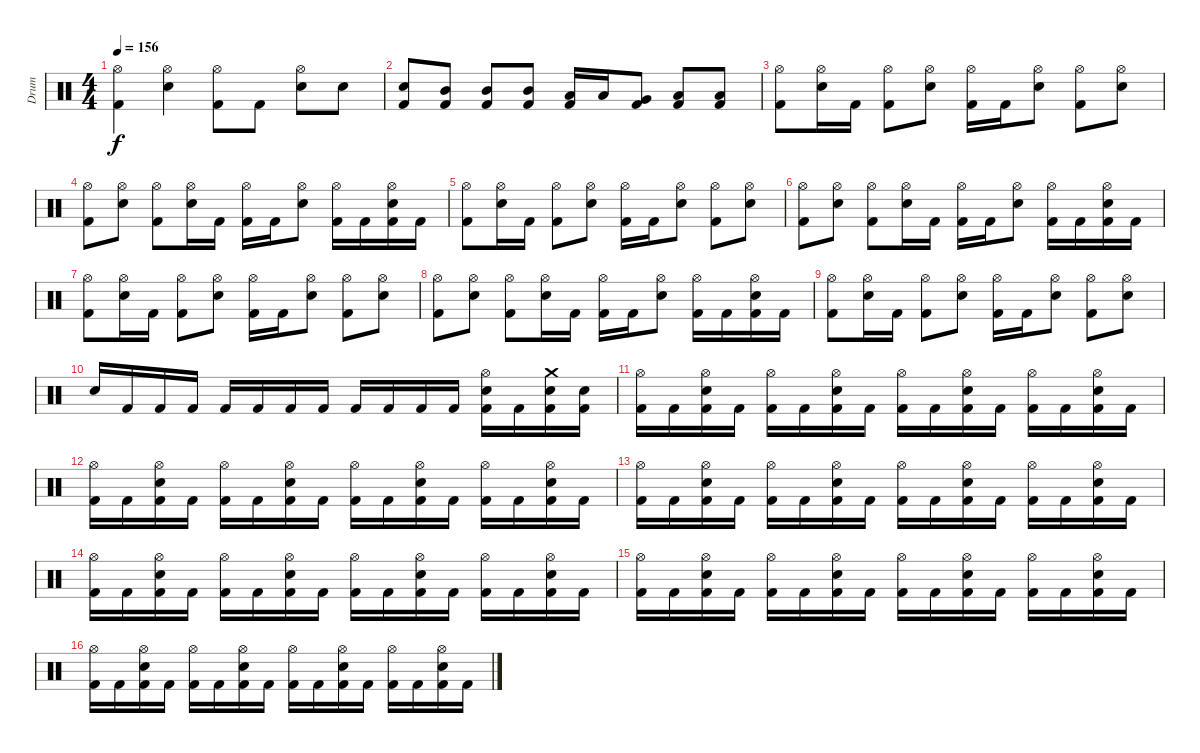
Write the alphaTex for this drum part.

\track (" Drum" " Drum") {instrument percussion}
\staff {score}
\articulation defaults
\ts (4 4)
\tempo 156
\clef neutral
\ks c
("Hi-Hat (open)" "Kick (hit) 2").4{dy f} ("Hi-Hat (open)" "Snare (hit) 2").4 ("Hi-Hat (open)" "Kick (hit) 2").8 "Kick (hit) 2".8 ("Snare (hit) 2" "Hi-Hat (open)").8 "Snare (hit) 2".8 |
("Kick (hit) 2" "Snare (hit) 2").8 ("Kick (hit) 2" "Mid Tom (hit)").8 ("Kick (hit) 2" "Mid Tom (hit)").8 ("Kick (hit) 2" "Mid Tom (hit)").8 ("Kick (hit) 2" "Low Tom (hit)").16 "Low Tom (hit)".16 ("Kick (hit) 2" "Very Low Tom (hit)").8 ("Kick (hit) 2" "Low Floor Tom (hit)").8 ("Kick (hit) 2" "Low Floor Tom (hit)").8 |
("Kick (hit) 2" "Hi-Hat (open)").8 ("Snare (hit) 2" "Hi-Hat (open)").16 "Kick (hit) 2".16 ("Kick (hit) 2" "Hi-Hat (open)").8 ("Snare (hit) 2" "Hi-Hat (open)").8 ("Kick (hit) 2" "Hi-Hat (open)").16 "Kick (hit) 2".16 ("Snare (hit) 2" "Hi-Hat (open)").8 ("Kick (hit) 2" "Hi-Hat (open)").8 ("Snare (hit) 2" "Hi-Hat (open)").8 |
("Kick (hit) 2" "Hi-Hat (open)").8 ("Snare (hit) 2" "Hi-Hat (open)").8 ("Kick (hit) 2" "Hi-Hat (open)").8 ("Snare (hit) 2" "Hi-Hat (open)").16 "Kick (hit) 2".16 ("Kick (hit) 2" "Hi-Hat (open)").16 "Kick (hit) 2".16 ("Snare (hit) 2" "Hi-Hat (open)").8 ("Kick (hit) 2" "Hi-Hat (open)").16 "Kick (hit) 2".16 ("Kick (hit) 2" "Snare (hit) 2" "Hi-Hat (open)").16 "Kick (hit) 2".16 |
("Kick (hit) 2" "Hi-Hat (open)").8 ("Snare (hit) 2" "Hi-Hat (open)").16 "Kick (hit) 2".16 ("Kick (hit) 2" "Hi-Hat (open)").8 ("Snare (hit) 2" "Hi-Hat (open)").8 ("Kick (hit) 2" "Hi-Hat (open)").16 "Kick (hit) 2".16 ("Snare (hit) 2" "Hi-Hat (open)").8 ("Kick (hit) 2" "Hi-Hat (open)").8 ("Snare (hit) 2" "Hi-Hat (open)").8 |
("Kick (hit) 2" "Hi-Hat (open)").8 ("Snare (hit) 2" "Hi-Hat (open)").8 ("Kick (hit) 2" "Hi-Hat (open)").8 ("Snare (hit) 2" "Hi-Hat (open)").16 "Kick (hit) 2".16 ("Kick (hit) 2" "Hi-Hat (open)").16 "Kick (hit) 2".16 ("Snare (hit) 2" "Hi-Hat (open)").8 ("Kick (hit) 2" "Hi-Hat (open)").16 "Kick (hit) 2".16 ("Kick (hit) 2" "Snare (hit) 2" "Hi-Hat (open)").16 "Kick (hit) 2".16 |
("Kick (hit) 2" "Hi-Hat (open)").8 ("Snare (hit) 2" "Hi-Hat (open)").16 "Kick (hit) 2".16 ("Kick (hit) 2" "Hi-Hat (open)").8 ("Snare (hit) 2" "Hi-Hat (open)").8 ("Kick (hit) 2" "Hi-Hat (open)").16 "Kick (hit) 2".16 ("Snare (hit) 2" "Hi-Hat (open)").8 ("Kick (hit) 2" "Hi-Hat (open)").8 ("Snare (hit) 2" "Hi-Hat (open)").8 |
("Kick (hit) 2" "Hi-Hat (open)").8 ("Snare (hit) 2" "Hi-Hat (open)").8 ("Kick (hit) 2" "Hi-Hat (open)").8 ("Snare (hit) 2" "Hi-Hat (open)").16 "Kick (hit) 2".16 ("Kick (hit) 2" "Hi-Hat (open)").16 "Kick (hit) 2".16 ("Snare (hit) 2" "Hi-Hat (open)").8 ("Kick (hit) 2" "Hi-Hat (open)").16 "Kick (hit) 2".16 ("Kick (hit) 2" "Snare (hit) 2" "Hi-Hat (open)").16 "Kick (hit) 2".16 |
("Kick (hit) 2" "Hi-Hat (open)").8 ("Snare (hit) 2" "Hi-Hat (open)").16 "Kick (hit) 2".16 ("Kick (hit) 2" "Hi-Hat (open)").8 ("Snare (hit) 2" "Hi-Hat (open)").8 ("Kick (hit) 2" "Hi-Hat (open)").16 "Kick (hit) 2".16 ("Snare (hit) 2" "Hi-Hat (open)").8 ("Kick (hit) 2" "Hi-Hat (open)").8 ("Snare (hit) 2" "Hi-Hat (open)").8 |
"Snare (hit) 2".16 "Kick (hit) 2".16 "Kick (hit) 2".16 "Kick (hit) 2".16 "Kick (hit) 2".16 "Kick (hit) 2".16 "Kick (hit) 2".16 "Kick (hit) 2".16 "Kick (hit) 2".16 "Kick (hit) 2".16 "Kick (hit) 2".16 "Kick (hit) 2".16 ("Hi-Hat (open)" "Electric Snare (hit)" "Kick (hit) 2").16 "Kick (hit) 2".16 ("Crash medium (hit)" "Electric Snare (hit)" "Kick (hit) 2").16 ("Electric Snare (hit)" "Kick (hit) 2").16 |
("Hi-Hat (open)" "Kick (hit) 2").16 "Kick (hit) 2".16 ("Snare (hit) 2" "Hi-Hat (open)" "Kick (hit) 2").16 "Kick (hit) 2".16 ("Hi-Hat (open)" "Kick (hit) 2").16 "Kick (hit) 2".16 ("Snare (hit) 2" "Hi-Hat (open)" "Kick (hit) 2").16 "Kick (hit) 2".16 ("Hi-Hat (open)" "Kick (hit) 2").16 "Kick (hit) 2".16 ("Snare (hit) 2" "Hi-Hat (open)" "Kick (hit) 2").16 "Kick (hit) 2".16 ("Hi-Hat (open)" "Kick (hit) 2").16 "Kick (hit) 2".16 ("Snare (hit) 2" "Hi-Hat (open)" "Kick (hit) 2").16 "Kick (hit) 2".16 |
("Hi-Hat (open)" "Kick (hit) 2").16 "Kick (hit) 2".16 ("Snare (hit) 2" "Hi-Hat (open)" "Kick (hit) 2").16 "Kick (hit) 2".16 ("Hi-Hat (open)" "Kick (hit) 2").16 "Kick (hit) 2".16 ("Snare (hit) 2" "Hi-Hat (open)" "Kick (hit) 2").16 "Kick (hit) 2".16 ("Hi-Hat (open)" "Kick (hit) 2").16 "Kick (hit) 2".16 ("Snare (hit) 2" "Hi-Hat (open)" "Kick (hit) 2").16 "Kick (hit) 2".16 ("Hi-Hat (open)" "Kick (hit) 2").16 "Kick (hit) 2".16 ("Snare (hit) 2" "Hi-Hat (open)" "Kick (hit) 2").16 "Kick (hit) 2".16 |
("Hi-Hat (open)" "Kick (hit) 2").16 "Kick (hit) 2".16 ("Snare (hit) 2" "Hi-Hat (open)" "Kick (hit) 2").16 "Kick (hit) 2".16 ("Hi-Hat (open)" "Kick (hit) 2").16 "Kick (hit) 2".16 ("Snare (hit) 2" "Hi-Hat (open)" "Kick (hit) 2").16 "Kick (hit) 2".16 ("Hi-Hat (open)" "Kick (hit) 2").16 "Kick (hit) 2".16 ("Snare (hit) 2" "Hi-Hat (open)" "Kick (hit) 2").16 "Kick (hit) 2".16 ("Hi-Hat (open)" "Kick (hit) 2").16 "Kick (hit) 2".16 ("Snare (hit) 2" "Hi-Hat (open)" "Kick (hit) 2").16 "Kick (hit) 2".16 |
("Hi-Hat (open)" "Kick (hit) 2").16 "Kick (hit) 2".16 ("Snare (hit) 2" "Hi-Hat (open)" "Kick (hit) 2").16 "Kick (hit) 2".16 ("Hi-Hat (open)" "Kick (hit) 2").16 "Kick (hit) 2".16 ("Snare (hit) 2" "Hi-Hat (open)" "Kick (hit) 2").16 "Kick (hit) 2".16 ("Hi-Hat (open)" "Kick (hit) 2").16 "Kick (hit) 2".16 ("Snare (hit) 2" "Hi-Hat (open)" "Kick (hit) 2").16 "Kick (hit) 2".16 ("Hi-Hat (open)" "Kick (hit) 2").16 "Kick (hit) 2".16 ("Snare (hit) 2" "Hi-Hat (open)" "Kick (hit) 2").16 "Kick (hit) 2".16 |
("Hi-Hat (open)" "Kick (hit) 2").16 "Kick (hit) 2".16 ("Snare (hit) 2" "Hi-Hat (open)" "Kick (hit) 2").16 "Kick (hit) 2".16 ("Hi-Hat (open)" "Kick (hit) 2").16 "Kick (hit) 2".16 ("Snare (hit) 2" "Hi-Hat (open)" "Kick (hit) 2").16 "Kick (hit) 2".16 ("Hi-Hat (open)" "Kick (hit) 2").16 "Kick (hit) 2".16 ("Snare (hit) 2" "Hi-Hat (open)" "Kick (hit) 2").16 "Kick (hit) 2".16 ("Hi-Hat (open)" "Kick (hit) 2").16 "Kick (hit) 2".16 ("Snare (hit) 2" "Hi-Hat (open)" "Kick (hit) 2").16 "Kick (hit) 2".16 |
("Hi-Hat (open)" "Kick (hit) 2").16 "Kick (hit) 2".16 ("Snare (hit) 2" "Hi-Hat (open)" "Kick (hit) 2").16 "Kick (hit) 2".16 ("Hi-Hat (open)" "Kick (hit) 2").16 "Kick (hit) 2".16 ("Snare (hit) 2" "Hi-Hat (open)" "Kick (hit) 2").16 "Kick (hit) 2".16 ("Hi-Hat (open)" "Kick (hit) 2").16 "Kick (hit) 2".16 ("Snare (hit) 2" "Hi-Hat (open)" "Kick (hit) 2").16 "Kick (hit) 2".16 ("Hi-Hat (open)" "Kick (hit) 2").16 "Kick (hit) 2".16 ("Snare (hit) 2" "Hi-Hat (open)" "Kick (hit) 2").16 "Kick (hit) 2".16
